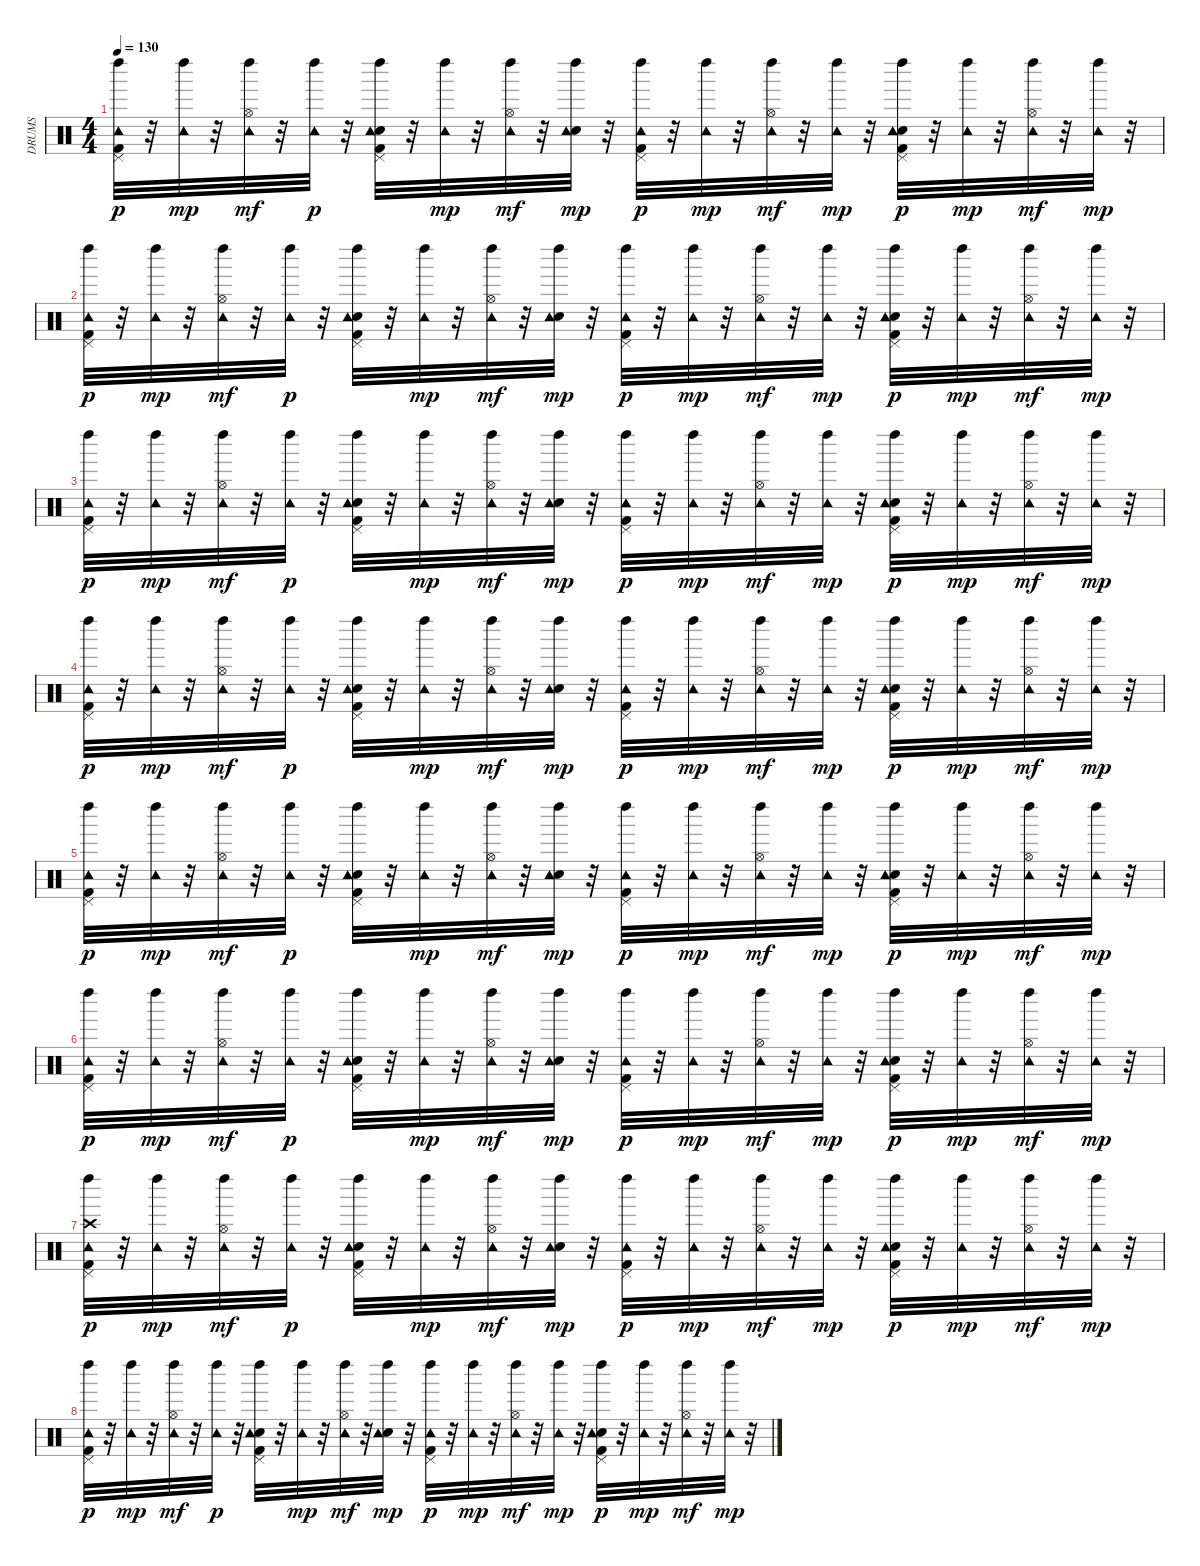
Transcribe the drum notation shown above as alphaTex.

\track ("DRUMS" "DRUMS") {instrument percussion}
\staff {score}
\articulation defaults
\ts (4 4)
\tempo 130
\clef neutral
\ks c
("Kick (hit) 2" "Pedal Hi-Hat (hit)" "Left Maraca (hit)" "Tambourine (hit)").32{dy p} r.32 ("Left Maraca (hit)" "Tambourine (hit)").32{dy mp} r.32 ("Hi-Hat (open)" "Left Maraca (hit)" "Tambourine (hit)").32{dy mf} r.32 ("Left Maraca (hit)" "Tambourine (hit)").32{dy p} r.32 ("Kick (hit) 2" "Electric Snare (hit)" "Pedal Hi-Hat (hit)" "Left Maraca (hit)" "Tambourine (hit)").32 r.32 ("Left Maraca (hit)" "Tambourine (hit)").32{dy mp} r.32 ("Hi-Hat (open)" "Left Maraca (hit)" "Tambourine (hit)").32{dy mf} r.32 ("Electric Snare (hit)" "Left Maraca (hit)" "Tambourine (hit)").32{dy mp} r.32 ("Kick (hit) 2" "Pedal Hi-Hat (hit)" "Left Maraca (hit)" "Tambourine (hit)").32{dy p} r.32 ("Left Maraca (hit)" "Tambourine (hit)").32{dy mp} r.32 ("Hi-Hat (open)" "Left Maraca (hit)" "Tambourine (hit)").32{dy mf} r.32 ("Left Maraca (hit)" "Tambourine (hit)").32{dy mp} r.32 ("Kick (hit) 2" "Electric Snare (hit)" "Pedal Hi-Hat (hit)" "Left Maraca (hit)" "Tambourine (hit)").32{dy p} r.32 ("Left Maraca (hit)" "Tambourine (hit)").32{dy mp} r.32 ("Hi-Hat (open)" "Left Maraca (hit)" "Tambourine (hit)").32{dy mf} r.32 ("Left Maraca (hit)" "Tambourine (hit)").32{dy mp} r.32 |
("Kick (hit) 2" "Pedal Hi-Hat (hit)" "Left Maraca (hit)" "Tambourine (hit)").32{dy p} r.32 ("Left Maraca (hit)" "Tambourine (hit)").32{dy mp} r.32 ("Hi-Hat (open)" "Left Maraca (hit)" "Tambourine (hit)").32{dy mf} r.32 ("Left Maraca (hit)" "Tambourine (hit)").32{dy p} r.32 ("Kick (hit) 2" "Electric Snare (hit)" "Pedal Hi-Hat (hit)" "Left Maraca (hit)" "Tambourine (hit)").32 r.32 ("Left Maraca (hit)" "Tambourine (hit)").32{dy mp} r.32 ("Hi-Hat (open)" "Left Maraca (hit)" "Tambourine (hit)").32{dy mf} r.32 ("Electric Snare (hit)" "Left Maraca (hit)" "Tambourine (hit)").32{dy mp} r.32 ("Kick (hit) 2" "Pedal Hi-Hat (hit)" "Left Maraca (hit)" "Tambourine (hit)").32{dy p} r.32 ("Left Maraca (hit)" "Tambourine (hit)").32{dy mp} r.32 ("Hi-Hat (open)" "Left Maraca (hit)" "Tambourine (hit)").32{dy mf} r.32 ("Left Maraca (hit)" "Tambourine (hit)").32{dy mp} r.32 ("Kick (hit) 2" "Electric Snare (hit)" "Pedal Hi-Hat (hit)" "Left Maraca (hit)" "Tambourine (hit)").32{dy p} r.32 ("Left Maraca (hit)" "Tambourine (hit)").32{dy mp} r.32 ("Hi-Hat (open)" "Left Maraca (hit)" "Tambourine (hit)").32{dy mf} r.32 ("Left Maraca (hit)" "Tambourine (hit)").32{dy mp} r.32 |
("Kick (hit) 2" "Pedal Hi-Hat (hit)" "Left Maraca (hit)" "Tambourine (hit)").32{dy p} r.32 ("Left Maraca (hit)" "Tambourine (hit)").32{dy mp} r.32 ("Hi-Hat (open)" "Left Maraca (hit)" "Tambourine (hit)").32{dy mf} r.32 ("Left Maraca (hit)" "Tambourine (hit)").32{dy p} r.32 ("Kick (hit) 2" "Electric Snare (hit)" "Pedal Hi-Hat (hit)" "Left Maraca (hit)" "Tambourine (hit)").32 r.32 ("Left Maraca (hit)" "Tambourine (hit)").32{dy mp} r.32 ("Hi-Hat (open)" "Left Maraca (hit)" "Tambourine (hit)").32{dy mf} r.32 ("Electric Snare (hit)" "Left Maraca (hit)" "Tambourine (hit)").32{dy mp} r.32 ("Kick (hit) 2" "Pedal Hi-Hat (hit)" "Left Maraca (hit)" "Tambourine (hit)").32{dy p} r.32 ("Left Maraca (hit)" "Tambourine (hit)").32{dy mp} r.32 ("Hi-Hat (open)" "Left Maraca (hit)" "Tambourine (hit)").32{dy mf} r.32 ("Left Maraca (hit)" "Tambourine (hit)").32{dy mp} r.32 ("Kick (hit) 2" "Electric Snare (hit)" "Pedal Hi-Hat (hit)" "Left Maraca (hit)" "Tambourine (hit)").32{dy p} r.32 ("Left Maraca (hit)" "Tambourine (hit)").32{dy mp} r.32 ("Hi-Hat (open)" "Left Maraca (hit)" "Tambourine (hit)").32{dy mf} r.32 ("Left Maraca (hit)" "Tambourine (hit)").32{dy mp} r.32 |
("Kick (hit) 2" "Pedal Hi-Hat (hit)" "Left Maraca (hit)" "Tambourine (hit)").32{dy p} r.32 ("Left Maraca (hit)" "Tambourine (hit)").32{dy mp} r.32 ("Hi-Hat (open)" "Left Maraca (hit)" "Tambourine (hit)").32{dy mf} r.32 ("Left Maraca (hit)" "Tambourine (hit)").32{dy p} r.32 ("Kick (hit) 2" "Electric Snare (hit)" "Pedal Hi-Hat (hit)" "Left Maraca (hit)" "Tambourine (hit)").32 r.32 ("Left Maraca (hit)" "Tambourine (hit)").32{dy mp} r.32 ("Hi-Hat (open)" "Left Maraca (hit)" "Tambourine (hit)").32{dy mf} r.32 ("Electric Snare (hit)" "Left Maraca (hit)" "Tambourine (hit)").32{dy mp} r.32 ("Kick (hit) 2" "Pedal Hi-Hat (hit)" "Left Maraca (hit)" "Tambourine (hit)").32{dy p} r.32 ("Left Maraca (hit)" "Tambourine (hit)").32{dy mp} r.32 ("Hi-Hat (open)" "Left Maraca (hit)" "Tambourine (hit)").32{dy mf} r.32 ("Left Maraca (hit)" "Tambourine (hit)").32{dy mp} r.32 ("Kick (hit) 2" "Electric Snare (hit)" "Pedal Hi-Hat (hit)" "Left Maraca (hit)" "Tambourine (hit)").32{dy p} r.32 ("Left Maraca (hit)" "Tambourine (hit)").32{dy mp} r.32 ("Hi-Hat (open)" "Left Maraca (hit)" "Tambourine (hit)").32{dy mf} r.32 ("Left Maraca (hit)" "Tambourine (hit)").32{dy mp} r.32 |
("Kick (hit) 2" "Pedal Hi-Hat (hit)" "Left Maraca (hit)" "Tambourine (hit)").32{dy p} r.32 ("Left Maraca (hit)" "Tambourine (hit)").32{dy mp} r.32 ("Hi-Hat (open)" "Left Maraca (hit)" "Tambourine (hit)").32{dy mf} r.32 ("Left Maraca (hit)" "Tambourine (hit)").32{dy p} r.32 ("Kick (hit) 2" "Electric Snare (hit)" "Pedal Hi-Hat (hit)" "Left Maraca (hit)" "Tambourine (hit)").32 r.32 ("Left Maraca (hit)" "Tambourine (hit)").32{dy mp} r.32 ("Hi-Hat (open)" "Left Maraca (hit)" "Tambourine (hit)").32{dy mf} r.32 ("Electric Snare (hit)" "Left Maraca (hit)" "Tambourine (hit)").32{dy mp} r.32 ("Kick (hit) 2" "Pedal Hi-Hat (hit)" "Left Maraca (hit)" "Tambourine (hit)").32{dy p} r.32 ("Left Maraca (hit)" "Tambourine (hit)").32{dy mp} r.32 ("Hi-Hat (open)" "Left Maraca (hit)" "Tambourine (hit)").32{dy mf} r.32 ("Left Maraca (hit)" "Tambourine (hit)").32{dy mp} r.32 ("Kick (hit) 2" "Electric Snare (hit)" "Pedal Hi-Hat (hit)" "Left Maraca (hit)" "Tambourine (hit)").32{dy p} r.32 ("Left Maraca (hit)" "Tambourine (hit)").32{dy mp} r.32 ("Hi-Hat (open)" "Left Maraca (hit)" "Tambourine (hit)").32{dy mf} r.32 ("Left Maraca (hit)" "Tambourine (hit)").32{dy mp} r.32 |
("Kick (hit) 2" "Pedal Hi-Hat (hit)" "Left Maraca (hit)" "Tambourine (hit)").32{dy p} r.32 ("Left Maraca (hit)" "Tambourine (hit)").32{dy mp} r.32 ("Hi-Hat (open)" "Left Maraca (hit)" "Tambourine (hit)").32{dy mf} r.32 ("Left Maraca (hit)" "Tambourine (hit)").32{dy p} r.32 ("Kick (hit) 2" "Electric Snare (hit)" "Pedal Hi-Hat (hit)" "Left Maraca (hit)" "Tambourine (hit)").32 r.32 ("Left Maraca (hit)" "Tambourine (hit)").32{dy mp} r.32 ("Hi-Hat (open)" "Left Maraca (hit)" "Tambourine (hit)").32{dy mf} r.32 ("Electric Snare (hit)" "Left Maraca (hit)" "Tambourine (hit)").32{dy mp} r.32 ("Kick (hit) 2" "Pedal Hi-Hat (hit)" "Left Maraca (hit)" "Tambourine (hit)").32{dy p} r.32 ("Left Maraca (hit)" "Tambourine (hit)").32{dy mp} r.32 ("Hi-Hat (open)" "Left Maraca (hit)" "Tambourine (hit)").32{dy mf} r.32 ("Left Maraca (hit)" "Tambourine (hit)").32{dy mp} r.32 ("Kick (hit) 2" "Electric Snare (hit)" "Pedal Hi-Hat (hit)" "Left Maraca (hit)" "Tambourine (hit)").32{dy p} r.32 ("Left Maraca (hit)" "Tambourine (hit)").32{dy mp} r.32 ("Hi-Hat (open)" "Left Maraca (hit)" "Tambourine (hit)").32{dy mf} r.32 ("Left Maraca (hit)" "Tambourine (hit)").32{dy mp} r.32 |
("Kick (hit) 2" "Pedal Hi-Hat (hit)" "Left Maraca (hit)" "Crash high (hit)" "Tambourine (hit)").32{dy p} r.32 ("Left Maraca (hit)" "Tambourine (hit)").32{dy mp} r.32 ("Hi-Hat (open)" "Left Maraca (hit)" "Tambourine (hit)").32{dy mf} r.32 ("Left Maraca (hit)" "Tambourine (hit)").32{dy p} r.32 ("Kick (hit) 2" "Electric Snare (hit)" "Pedal Hi-Hat (hit)" "Left Maraca (hit)" "Tambourine (hit)").32 r.32 ("Left Maraca (hit)" "Tambourine (hit)").32{dy mp} r.32 ("Hi-Hat (open)" "Left Maraca (hit)" "Tambourine (hit)").32{dy mf} r.32 ("Electric Snare (hit)" "Left Maraca (hit)" "Tambourine (hit)").32{dy mp} r.32 ("Kick (hit) 2" "Pedal Hi-Hat (hit)" "Left Maraca (hit)" "Tambourine (hit)").32{dy p} r.32 ("Left Maraca (hit)" "Tambourine (hit)").32{dy mp} r.32 ("Hi-Hat (open)" "Left Maraca (hit)" "Tambourine (hit)").32{dy mf} r.32 ("Left Maraca (hit)" "Tambourine (hit)").32{dy mp} r.32 ("Kick (hit) 2" "Electric Snare (hit)" "Pedal Hi-Hat (hit)" "Left Maraca (hit)" "Tambourine (hit)").32{dy p} r.32 ("Left Maraca (hit)" "Tambourine (hit)").32{dy mp} r.32 ("Hi-Hat (open)" "Left Maraca (hit)" "Tambourine (hit)").32{dy mf} r.32 ("Left Maraca (hit)" "Tambourine (hit)").32{dy mp} r.32 |
("Kick (hit) 2" "Pedal Hi-Hat (hit)" "Left Maraca (hit)" "Tambourine (hit)").32{dy p} r.32 ("Left Maraca (hit)" "Tambourine (hit)").32{dy mp} r.32 ("Hi-Hat (open)" "Left Maraca (hit)" "Tambourine (hit)").32{dy mf} r.32 ("Left Maraca (hit)" "Tambourine (hit)").32{dy p} r.32 ("Kick (hit) 2" "Electric Snare (hit)" "Pedal Hi-Hat (hit)" "Left Maraca (hit)" "Tambourine (hit)").32 r.32 ("Left Maraca (hit)" "Tambourine (hit)").32{dy mp} r.32 ("Hi-Hat (open)" "Left Maraca (hit)" "Tambourine (hit)").32{dy mf} r.32 ("Electric Snare (hit)" "Left Maraca (hit)" "Tambourine (hit)").32{dy mp} r.32 ("Kick (hit) 2" "Pedal Hi-Hat (hit)" "Left Maraca (hit)" "Tambourine (hit)").32{dy p} r.32 ("Left Maraca (hit)" "Tambourine (hit)").32{dy mp} r.32 ("Hi-Hat (open)" "Left Maraca (hit)" "Tambourine (hit)").32{dy mf} r.32 ("Left Maraca (hit)" "Tambourine (hit)").32{dy mp} r.32 ("Kick (hit) 2" "Electric Snare (hit)" "Pedal Hi-Hat (hit)" "Left Maraca (hit)" "Tambourine (hit)").32{dy p} r.32 ("Left Maraca (hit)" "Tambourine (hit)").32{dy mp} r.32 ("Hi-Hat (open)" "Left Maraca (hit)" "Tambourine (hit)").32{dy mf} r.32 ("Left Maraca (hit)" "Tambourine (hit)").32{dy mp} r.32
